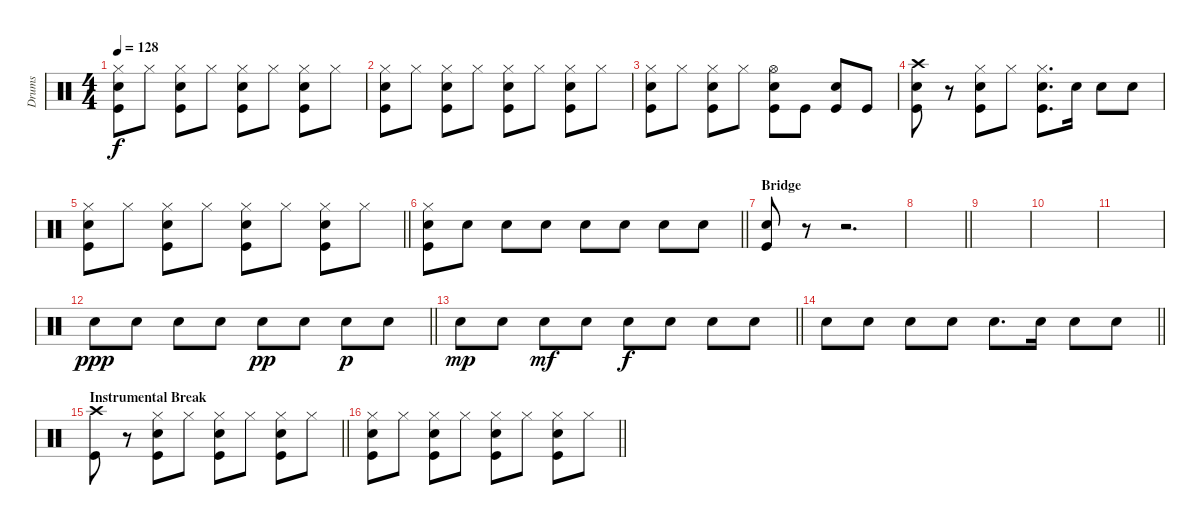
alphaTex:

\track ("Drums" "Drums") {instrument percussion}
\staff {score}
\articulation defaults
\ts (4 4)
\tempo 128
\clef neutral
\ks c
("Hi-Hat (closed)" "Snare (hit) 2" "Kick (hit)").8{dy f} "Hi-Hat (closed)".8 ("Hi-Hat (closed)" "Snare (hit) 2" "Kick (hit)").8 "Hi-Hat (closed)".8 ("Hi-Hat (closed)" "Snare (hit) 2" "Kick (hit)").8 "Hi-Hat (closed)".8 ("Hi-Hat (closed)" "Snare (hit) 2" "Kick (hit)").8 "Hi-Hat (closed)".8 |
("Hi-Hat (closed)" "Snare (hit) 2" "Kick (hit)").8 "Hi-Hat (closed)".8 ("Hi-Hat (closed)" "Snare (hit) 2" "Kick (hit)").8 "Hi-Hat (closed)".8 ("Hi-Hat (closed)" "Snare (hit) 2" "Kick (hit)").8 "Hi-Hat (closed)".8 ("Hi-Hat (closed)" "Snare (hit) 2" "Kick (hit)").8 "Hi-Hat (closed)".8 |
("Hi-Hat (closed)" "Snare (hit) 2" "Kick (hit)").8 "Hi-Hat (closed)".8 ("Hi-Hat (closed)" "Snare (hit) 2" "Kick (hit)").8 "Hi-Hat (closed)".8 ("Hi-Hat (open)" "Snare (hit) 2" "Kick (hit)").8 "Kick (hit)".8 ("Snare (hit) 2" "Kick (hit)").8 "Kick (hit)".8 |
("Crash high (hit)" "Snare (hit) 2" "Kick (hit)").8 r.8 ("Hi-Hat (closed)" "Snare (hit) 2" "Kick (hit)").8 "Hi-Hat (closed)".8 ("Hi-Hat (closed)" "Kick (hit)" "Snare (hit) 2").8{d} "Snare (hit) 2".16 "Snare (hit) 2".8 "Snare (hit) 2".8 |
\barLineRight lightlight
("Hi-Hat (closed)" "Snare (hit) 2" "Kick (hit)").8 "Hi-Hat (closed)".8 ("Hi-Hat (closed)" "Snare (hit) 2" "Kick (hit)").8 "Hi-Hat (closed)".8 ("Hi-Hat (closed)" "Snare (hit) 2" "Kick (hit)").8 "Hi-Hat (closed)".8 ("Hi-Hat (closed)" "Snare (hit) 2" "Kick (hit)").8 "Hi-Hat (closed)".8 |
\barLineRight lightlight
("Hi-Hat (closed)" "Snare (hit) 2" "Kick (hit)").8 "Snare (hit) 2".8 "Snare (hit) 2".8 "Snare (hit) 2".8 "Snare (hit) 2".8 "Snare (hit) 2".8 "Snare (hit) 2".8 "Snare (hit) 2".8 |
\section ("" "Bridge")
("Snare (hit) 2" "Kick (hit)").8 r.8 r.2{d} |
\barLineRight lightlight
|
|
|
|
\barLineRight lightlight "Snare (hit) 2".8{dy ppp} "Snare (hit) 2".8 "Snare (hit) 2".8 "Snare (hit) 2".8 "Snare (hit) 2".8{dy pp} "Snare (hit) 2".8 "Snare (hit) 2".8{dy p} "Snare (hit) 2".8
|
\barLineRight lightlight "Snare (hit) 2".8{dy mp} "Snare (hit) 2".8 "Snare (hit) 2".8{dy mf} "Snare (hit) 2".8 "Snare (hit) 2".8{dy f} "Snare (hit) 2".8 "Snare (hit) 2".8 "Snare (hit) 2".8
|
\barLineRight lightlight "Snare (hit) 2".8 "Snare (hit) 2".8 "Snare (hit) 2".8 "Snare (hit) 2".8 "Snare (hit) 2".8{d} "Snare (hit) 2".16 "Snare (hit) 2".8 "Snare (hit) 2".8
|
\section ("" "Instrumental Break")
\barLineRight lightlight
("Crash high (hit)" "Kick (hit)").8 r.8 ("Hi-Hat (closed)" "Snare (hit) 2" "Kick (hit)").8 "Hi-Hat (closed)".8 ("Hi-Hat (closed)" "Snare (hit) 2" "Kick (hit)").8 "Hi-Hat (closed)".8 ("Hi-Hat (closed)" "Snare (hit) 2" "Kick (hit)").8 "Hi-Hat (closed)".8 |
\barLineRight lightlight
("Hi-Hat (closed)" "Snare (hit) 2" "Kick (hit)").8 "Hi-Hat (closed)".8 ("Hi-Hat (closed)" "Snare (hit) 2" "Kick (hit)").8 "Hi-Hat (closed)".8 ("Hi-Hat (closed)" "Snare (hit) 2" "Kick (hit)").8 "Hi-Hat (closed)".8 ("Hi-Hat (closed)" "Snare (hit) 2" "Kick (hit)").8 "Hi-Hat (closed)".8
